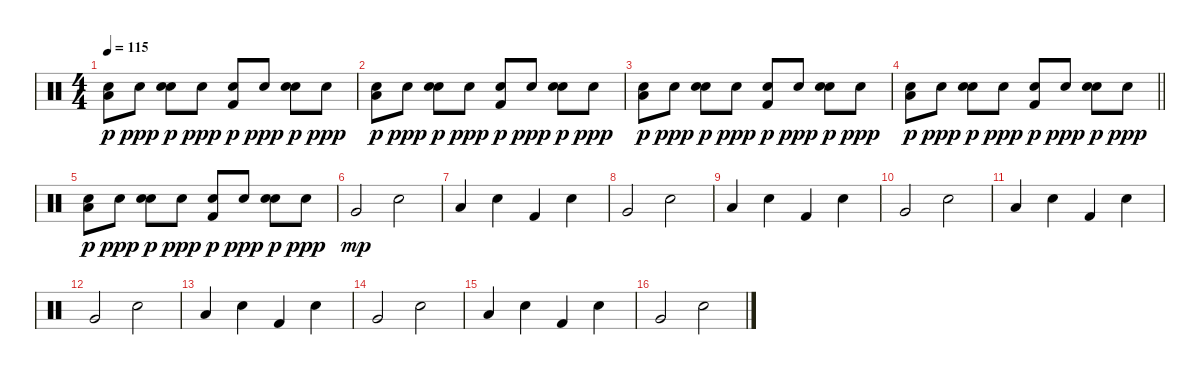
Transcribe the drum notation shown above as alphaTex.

\track "" {instrument percussion}
\staff {score}
\articulation defaults
\ts (4 4)
\tempo 115
\clef neutral
\ks c
("Snare (hit) 2" "Low Floor Tom (hit)").8{dy p} "Electric Snare (hit)".8{dy ppp} ("Hand Clap (hit)" "Snare (hit) 2").8{dy p} "Snare (hit) 2".8{dy ppp} ("Kick (hit) 2" "Snare (hit) 2").8{dy p} "Snare (hit) 2".8{dy ppp} ("Snare (hit) 2" "Hand Clap (hit)").8{dy p} "Snare (hit) 2".8{dy ppp} |
("Snare (hit) 2" "Low Floor Tom (hit)").8{dy p} "Electric Snare (hit)".8{dy ppp} ("Hand Clap (hit)" "Snare (hit) 2").8{dy p} "Snare (hit) 2".8{dy ppp} ("Kick (hit) 2" "Snare (hit) 2").8{dy p} "Snare (hit) 2".8{dy ppp} ("Snare (hit) 2" "Hand Clap (hit)").8{dy p} "Snare (hit) 2".8{dy ppp} |
("Snare (hit) 2" "Low Floor Tom (hit)").8{dy p} "Electric Snare (hit)".8{dy ppp} ("Hand Clap (hit)" "Snare (hit) 2").8{dy p} "Snare (hit) 2".8{dy ppp} ("Kick (hit) 2" "Snare (hit) 2").8{dy p} "Snare (hit) 2".8{dy ppp} ("Snare (hit) 2" "Hand Clap (hit)").8{dy p} "Snare (hit) 2".8{dy ppp} |
\barLineRight lightlight
("Snare (hit) 2" "Low Floor Tom (hit)").8{dy p} "Electric Snare (hit)".8{dy ppp} ("Hand Clap (hit)" "Snare (hit) 2").8{dy p} "Snare (hit) 2".8{dy ppp} ("Kick (hit) 2" "Snare (hit) 2").8{dy p} "Snare (hit) 2".8{dy ppp} ("Snare (hit) 2" "Hand Clap (hit)").8{dy p} "Snare (hit) 2".8{dy ppp} |
\section ("" "")
("Snare (hit) 2" "Low Floor Tom (hit)").8{dy p} "Electric Snare (hit)".8{dy ppp} ("Hand Clap (hit)" "Snare (hit) 2").8{dy p} "Snare (hit) 2".8{dy ppp} ("Kick (hit) 2" "Snare (hit) 2").8{dy p} "Snare (hit) 2".8{dy ppp} ("Snare (hit) 2" "Hand Clap (hit)").8{dy p} "Snare (hit) 2".8{dy ppp} |
"Very Low Tom (hit)".2{dy mp} "Electric Snare (hit)".2 |
"Low Floor Tom (hit)".4 "Snare (hit) 2".4 "Kick (hit) 2".4 "Snare (hit) 2".4 |
"Very Low Tom (hit)".2 "Electric Snare (hit)".2 |
"Low Floor Tom (hit)".4 "Snare (hit) 2".4 "Kick (hit) 2".4 "Snare (hit) 2".4 |
"Very Low Tom (hit)".2 "Electric Snare (hit)".2 |
"Low Floor Tom (hit)".4 "Snare (hit) 2".4 "Kick (hit) 2".4 "Snare (hit) 2".4 |
"Very Low Tom (hit)".2 "Electric Snare (hit)".2 |
"Low Floor Tom (hit)".4 "Snare (hit) 2".4 "Kick (hit) 2".4 "Snare (hit) 2".4 |
"Very Low Tom (hit)".2 "Electric Snare (hit)".2 |
"Low Floor Tom (hit)".4 "Snare (hit) 2".4 "Kick (hit) 2".4 "Snare (hit) 2".4 |
"Very Low Tom (hit)".2 "Electric Snare (hit)".2
